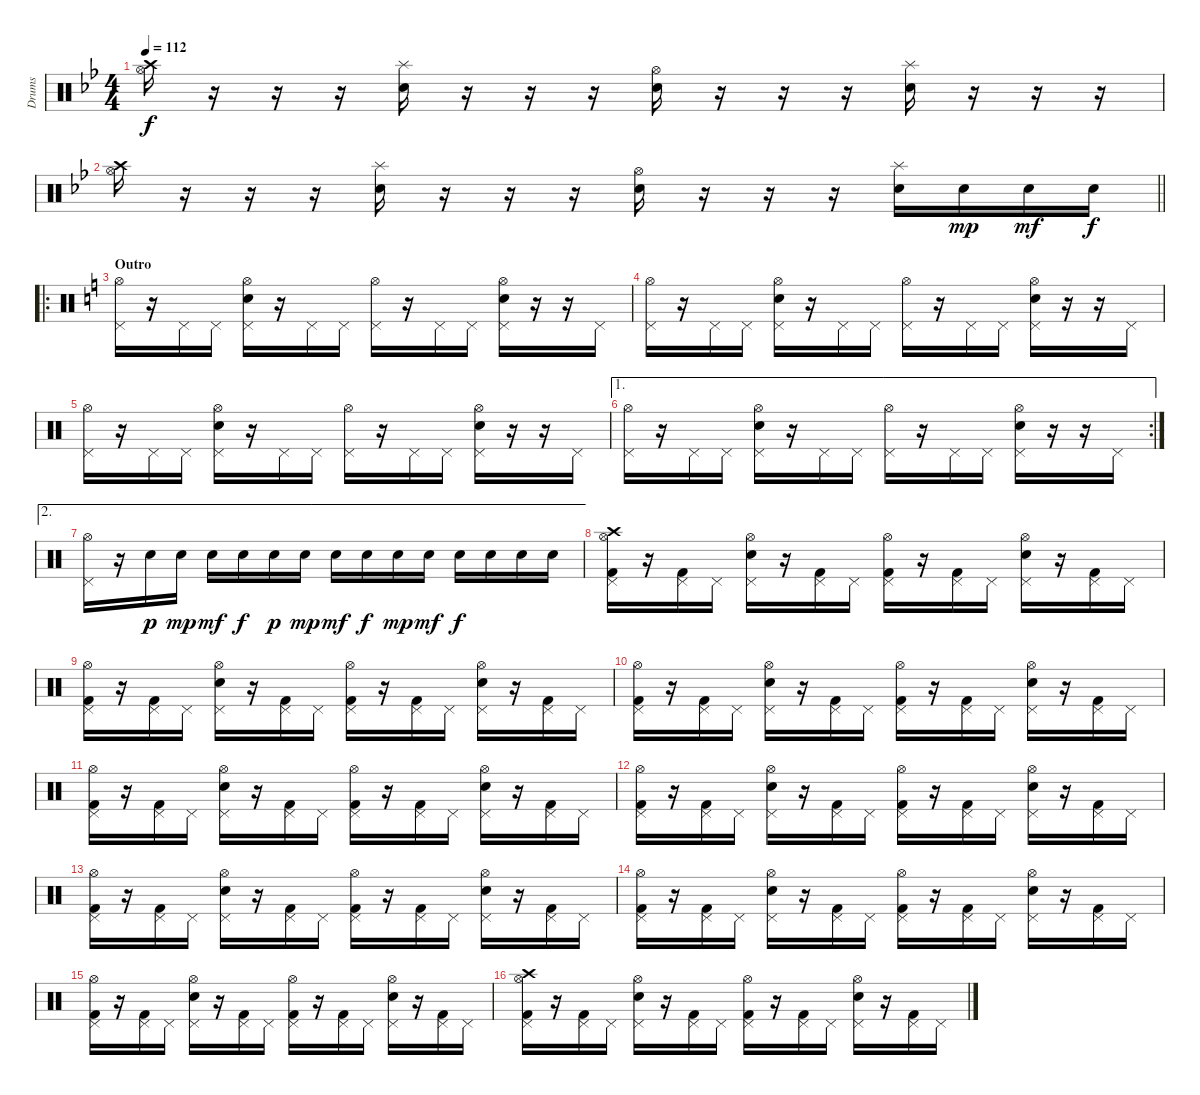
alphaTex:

\track ("Drums" "Drums") {instrument percussion}
\staff {score}
\articulation defaults
\ts (4 4)
\tempo 112
\clef neutral
\ks bb
("Hi-Hat (open)" "Crash high (hit)").16{dy f} r.16 r.16 r.16 ("Electric Snare (hit)" "Splash (hit)").16 r.16 r.16 r.16 ("Hi-Hat (open)" "Electric Snare (hit)").16 r.16 r.16 r.16 ("Electric Snare (hit)" "Splash (hit)").16 r.16 r.16 r.16 |
\barLineRight lightlight
("Hi-Hat (open)" "Crash high (hit)").16 r.16 r.16 r.16 ("Electric Snare (hit)" "Splash (hit)").16 r.16 r.16 r.16 ("Hi-Hat (open)" "Electric Snare (hit)").16 r.16 r.16 r.16 ("Electric Snare (hit)" "Splash (hit)").16 "Electric Snare (hit)".16{dy mp} "Electric Snare (hit)".16{dy mf} "Electric Snare (hit)".16{dy f} |
\ro
\section ("" "Outro")
\ks c
("Pedal Hi-Hat (hit)" "Hi-Hat (open)").16 r.16 "Pedal Hi-Hat (hit)".16 "Pedal Hi-Hat (hit)".16 ("Pedal Hi-Hat (hit)" "Hi-Hat (open)" "Electric Snare (hit)").16 r.16 "Pedal Hi-Hat (hit)".16 "Pedal Hi-Hat (hit)".16 ("Pedal Hi-Hat (hit)" "Hi-Hat (open)").16 r.16 "Pedal Hi-Hat (hit)".16 "Pedal Hi-Hat (hit)".16 ("Pedal Hi-Hat (hit)" "Hi-Hat (open)" "Electric Snare (hit)").16 r.16 r.16 "Pedal Hi-Hat (hit)".16 |
("Pedal Hi-Hat (hit)" "Hi-Hat (open)").16 r.16 "Pedal Hi-Hat (hit)".16 "Pedal Hi-Hat (hit)".16 ("Pedal Hi-Hat (hit)" "Hi-Hat (open)" "Electric Snare (hit)").16 r.16 "Pedal Hi-Hat (hit)".16 "Pedal Hi-Hat (hit)".16 ("Pedal Hi-Hat (hit)" "Hi-Hat (open)").16 r.16 "Pedal Hi-Hat (hit)".16 "Pedal Hi-Hat (hit)".16 ("Pedal Hi-Hat (hit)" "Hi-Hat (open)" "Electric Snare (hit)").16 r.16 r.16 "Pedal Hi-Hat (hit)".16 |
("Pedal Hi-Hat (hit)" "Hi-Hat (open)").16 r.16 "Pedal Hi-Hat (hit)".16 "Pedal Hi-Hat (hit)".16 ("Pedal Hi-Hat (hit)" "Hi-Hat (open)" "Electric Snare (hit)").16 r.16 "Pedal Hi-Hat (hit)".16 "Pedal Hi-Hat (hit)".16 ("Pedal Hi-Hat (hit)" "Hi-Hat (open)").16 r.16 "Pedal Hi-Hat (hit)".16 "Pedal Hi-Hat (hit)".16 ("Pedal Hi-Hat (hit)" "Hi-Hat (open)" "Electric Snare (hit)").16 r.16 r.16 "Pedal Hi-Hat (hit)".16 |
\ae 1
\rc 2
("Pedal Hi-Hat (hit)" "Hi-Hat (open)").16 r.16 "Pedal Hi-Hat (hit)".16 "Pedal Hi-Hat (hit)".16 ("Pedal Hi-Hat (hit)" "Hi-Hat (open)" "Electric Snare (hit)").16 r.16 "Pedal Hi-Hat (hit)".16 "Pedal Hi-Hat (hit)".16 ("Pedal Hi-Hat (hit)" "Hi-Hat (open)").16 r.16 "Pedal Hi-Hat (hit)".16 "Pedal Hi-Hat (hit)".16 ("Pedal Hi-Hat (hit)" "Hi-Hat (open)" "Electric Snare (hit)").16 r.16 r.16 "Pedal Hi-Hat (hit)".16 |
\ae 2
("Pedal Hi-Hat (hit)" "Hi-Hat (open)").16 r.16 "Electric Snare (hit)".16{dy p} "Electric Snare (hit)".16{dy mp} "Electric Snare (hit)".16{dy mf} "Electric Snare (hit)".16{dy f} "Electric Snare (hit)".16{dy p} "Electric Snare (hit)".16{dy mp} "Electric Snare (hit)".16{dy mf} "Electric Snare (hit)".16{dy f} "Electric Snare (hit)".16{dy mp} "Electric Snare (hit)".16{dy mf} "Electric Snare (hit)".16{dy f} "Electric Snare (hit)".16 "Electric Snare (hit)".16 "Electric Snare (hit)".16 |
("Pedal Hi-Hat (hit)" "Hi-Hat (open)" "Crash high (hit)" "Kick (hit) 2").16 r.16 ("Pedal Hi-Hat (hit)" "Kick (hit) 2").16 "Pedal Hi-Hat (hit)".16 ("Pedal Hi-Hat (hit)" "Hi-Hat (open)" "Electric Snare (hit)").16 r.16 ("Pedal Hi-Hat (hit)" "Kick (hit) 2").16 "Pedal Hi-Hat (hit)".16 ("Pedal Hi-Hat (hit)" "Hi-Hat (open)" "Kick (hit) 2").16 r.16 ("Pedal Hi-Hat (hit)" "Kick (hit) 2").16 "Pedal Hi-Hat (hit)".16 ("Pedal Hi-Hat (hit)" "Hi-Hat (open)" "Electric Snare (hit)").16 r.16 ("Pedal Hi-Hat (hit)" "Kick (hit) 2").16 "Pedal Hi-Hat (hit)".16 |
("Pedal Hi-Hat (hit)" "Hi-Hat (open)" "Kick (hit) 2").16 r.16 ("Pedal Hi-Hat (hit)" "Kick (hit) 2").16 "Pedal Hi-Hat (hit)".16 ("Pedal Hi-Hat (hit)" "Hi-Hat (open)" "Electric Snare (hit)").16 r.16 ("Pedal Hi-Hat (hit)" "Kick (hit) 2").16 "Pedal Hi-Hat (hit)".16 ("Pedal Hi-Hat (hit)" "Hi-Hat (open)" "Kick (hit) 2").16 r.16 ("Pedal Hi-Hat (hit)" "Kick (hit) 2").16 "Pedal Hi-Hat (hit)".16 ("Pedal Hi-Hat (hit)" "Hi-Hat (open)" "Electric Snare (hit)").16 r.16 ("Pedal Hi-Hat (hit)" "Kick (hit) 2").16 "Pedal Hi-Hat (hit)".16 |
("Pedal Hi-Hat (hit)" "Hi-Hat (open)" "Kick (hit) 2").16 r.16 ("Pedal Hi-Hat (hit)" "Kick (hit) 2").16 "Pedal Hi-Hat (hit)".16 ("Pedal Hi-Hat (hit)" "Hi-Hat (open)" "Electric Snare (hit)").16 r.16 ("Pedal Hi-Hat (hit)" "Kick (hit) 2").16 "Pedal Hi-Hat (hit)".16 ("Pedal Hi-Hat (hit)" "Hi-Hat (open)" "Kick (hit) 2").16 r.16 ("Pedal Hi-Hat (hit)" "Kick (hit) 2").16 "Pedal Hi-Hat (hit)".16 ("Pedal Hi-Hat (hit)" "Hi-Hat (open)" "Electric Snare (hit)").16 r.16 ("Pedal Hi-Hat (hit)" "Kick (hit) 2").16 "Pedal Hi-Hat (hit)".16 |
("Pedal Hi-Hat (hit)" "Hi-Hat (open)" "Kick (hit) 2").16 r.16 ("Pedal Hi-Hat (hit)" "Kick (hit) 2").16 "Pedal Hi-Hat (hit)".16 ("Pedal Hi-Hat (hit)" "Hi-Hat (open)" "Electric Snare (hit)").16 r.16 ("Pedal Hi-Hat (hit)" "Kick (hit) 2").16 "Pedal Hi-Hat (hit)".16 ("Pedal Hi-Hat (hit)" "Hi-Hat (open)" "Kick (hit) 2").16 r.16 ("Pedal Hi-Hat (hit)" "Kick (hit) 2").16 "Pedal Hi-Hat (hit)".16 ("Pedal Hi-Hat (hit)" "Hi-Hat (open)" "Electric Snare (hit)").16 r.16 ("Pedal Hi-Hat (hit)" "Kick (hit) 2").16 "Pedal Hi-Hat (hit)".16 |
("Pedal Hi-Hat (hit)" "Hi-Hat (open)" "Kick (hit) 2").16 r.16 ("Pedal Hi-Hat (hit)" "Kick (hit) 2").16 "Pedal Hi-Hat (hit)".16 ("Pedal Hi-Hat (hit)" "Hi-Hat (open)" "Electric Snare (hit)").16 r.16 ("Pedal Hi-Hat (hit)" "Kick (hit) 2").16 "Pedal Hi-Hat (hit)".16 ("Pedal Hi-Hat (hit)" "Hi-Hat (open)" "Kick (hit) 2").16 r.16 ("Pedal Hi-Hat (hit)" "Kick (hit) 2").16 "Pedal Hi-Hat (hit)".16 ("Pedal Hi-Hat (hit)" "Hi-Hat (open)" "Electric Snare (hit)").16 r.16 ("Pedal Hi-Hat (hit)" "Kick (hit) 2").16 "Pedal Hi-Hat (hit)".16 |
("Pedal Hi-Hat (hit)" "Hi-Hat (open)" "Kick (hit) 2").16 r.16 ("Pedal Hi-Hat (hit)" "Kick (hit) 2").16 "Pedal Hi-Hat (hit)".16 ("Pedal Hi-Hat (hit)" "Hi-Hat (open)" "Electric Snare (hit)").16 r.16 ("Pedal Hi-Hat (hit)" "Kick (hit) 2").16 "Pedal Hi-Hat (hit)".16 ("Pedal Hi-Hat (hit)" "Hi-Hat (open)" "Kick (hit) 2").16 r.16 ("Pedal Hi-Hat (hit)" "Kick (hit) 2").16 "Pedal Hi-Hat (hit)".16 ("Pedal Hi-Hat (hit)" "Hi-Hat (open)" "Electric Snare (hit)").16 r.16 ("Pedal Hi-Hat (hit)" "Kick (hit) 2").16 "Pedal Hi-Hat (hit)".16 |
("Pedal Hi-Hat (hit)" "Hi-Hat (open)" "Kick (hit) 2").16 r.16 ("Pedal Hi-Hat (hit)" "Kick (hit) 2").16 "Pedal Hi-Hat (hit)".16 ("Pedal Hi-Hat (hit)" "Hi-Hat (open)" "Electric Snare (hit)").16 r.16 ("Pedal Hi-Hat (hit)" "Kick (hit) 2").16 "Pedal Hi-Hat (hit)".16 ("Pedal Hi-Hat (hit)" "Hi-Hat (open)" "Kick (hit) 2").16 r.16 ("Pedal Hi-Hat (hit)" "Kick (hit) 2").16 "Pedal Hi-Hat (hit)".16 ("Pedal Hi-Hat (hit)" "Hi-Hat (open)" "Electric Snare (hit)").16 r.16 ("Pedal Hi-Hat (hit)" "Kick (hit) 2").16 "Pedal Hi-Hat (hit)".16 |
("Pedal Hi-Hat (hit)" "Hi-Hat (open)" "Kick (hit) 2").16 r.16 ("Pedal Hi-Hat (hit)" "Kick (hit) 2").16 "Pedal Hi-Hat (hit)".16 ("Pedal Hi-Hat (hit)" "Hi-Hat (open)" "Electric Snare (hit)").16 r.16 ("Pedal Hi-Hat (hit)" "Kick (hit) 2").16 "Pedal Hi-Hat (hit)".16 ("Pedal Hi-Hat (hit)" "Hi-Hat (open)" "Kick (hit) 2").16 r.16 ("Pedal Hi-Hat (hit)" "Kick (hit) 2").16 "Pedal Hi-Hat (hit)".16 ("Pedal Hi-Hat (hit)" "Hi-Hat (open)" "Electric Snare (hit)").16 r.16 ("Pedal Hi-Hat (hit)" "Kick (hit) 2").16 "Pedal Hi-Hat (hit)".16 |
("Pedal Hi-Hat (hit)" "Hi-Hat (open)" "Crash high (hit)" "Kick (hit) 2").16 r.16 ("Pedal Hi-Hat (hit)" "Kick (hit) 2").16 "Pedal Hi-Hat (hit)".16 ("Pedal Hi-Hat (hit)" "Hi-Hat (open)" "Electric Snare (hit)").16 r.16 ("Pedal Hi-Hat (hit)" "Kick (hit) 2").16 "Pedal Hi-Hat (hit)".16 ("Pedal Hi-Hat (hit)" "Hi-Hat (open)" "Kick (hit) 2").16 r.16 ("Pedal Hi-Hat (hit)" "Kick (hit) 2").16 "Pedal Hi-Hat (hit)".16 ("Pedal Hi-Hat (hit)" "Hi-Hat (open)" "Electric Snare (hit)").16 r.16 ("Pedal Hi-Hat (hit)" "Kick (hit) 2").16 "Pedal Hi-Hat (hit)".16
